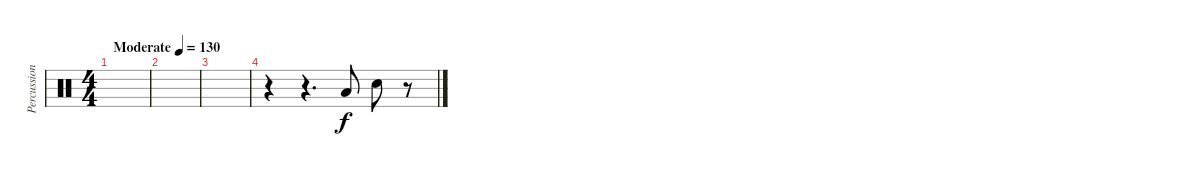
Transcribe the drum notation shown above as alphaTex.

\track ("Percussion" "Percussion") {instrument percussion}
\staff {score}
\articulation defaults
\ts (4 4)
\tempo (130 "Moderate")
\clef neutral
\ks c
|
|
|
r.4 r.4{d} "Low Tom (hit)".8 "Snare (hit) 2".8 r.8
